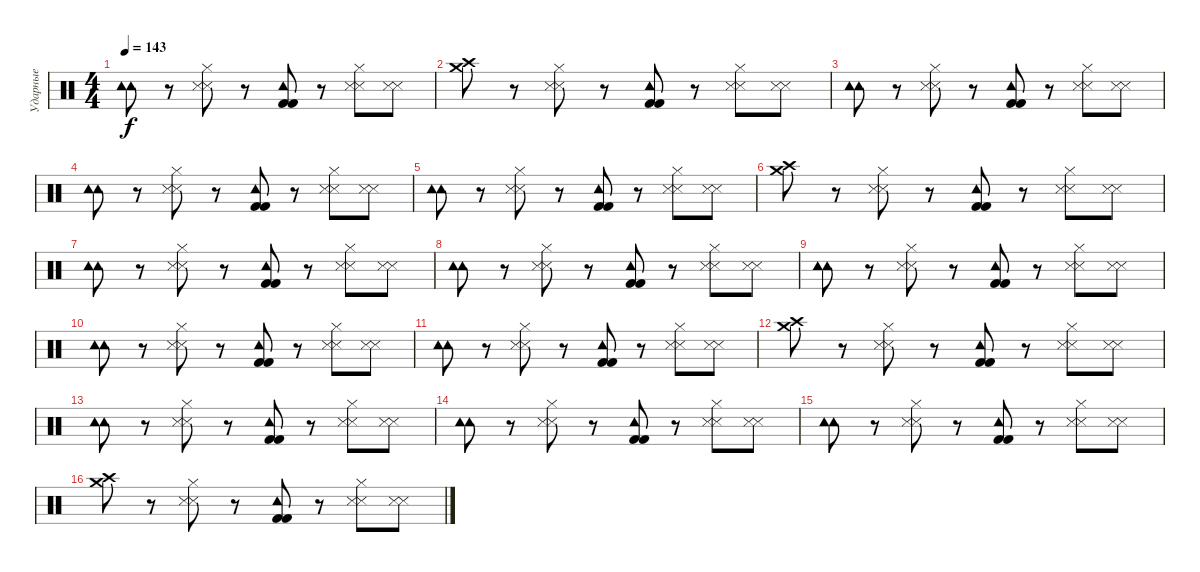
\track ("Ударные" "Ударные") {instrument percussion}
\staff {score}
\articulation defaults
\ts (4 4)
\tempo 143
\clef neutral
\ks c
("Tambourine (hit)" "Tambourine (hit)").8{dy f} r.8 ("Hi-Hat (closed)" "Metronome (hit)" "Metronome (hit)").8 r.8 ("Tambourine (hit)" "Kick (hit) 2" "Kick (hit) 2").8 r.8 ("Hi-Hat (closed)" "Metronome (hit)" "Metronome (hit)").8 ("Metronome (hit)" "Metronome (hit)").8 |
("Crash medium (hit)" "Crash high (hit)").8 r.8 ("Hi-Hat (closed)" "Metronome (hit)" "Metronome (hit)").8 r.8 ("Tambourine (hit)" "Kick (hit) 2" "Kick (hit) 2").8 r.8 ("Hi-Hat (closed)" "Metronome (hit)" "Metronome (hit)").8 ("Metronome (hit)" "Metronome (hit)").8 |
("Tambourine (hit)" "Tambourine (hit)").8 r.8 ("Hi-Hat (closed)" "Metronome (hit)" "Metronome (hit)").8 r.8 ("Tambourine (hit)" "Kick (hit) 2" "Kick (hit) 2").8 r.8 ("Hi-Hat (closed)" "Metronome (hit)" "Metronome (hit)").8 ("Metronome (hit)" "Metronome (hit)").8 |
("Tambourine (hit)" "Tambourine (hit)").8 r.8 ("Hi-Hat (closed)" "Metronome (hit)" "Metronome (hit)").8 r.8 ("Tambourine (hit)" "Kick (hit) 2" "Kick (hit) 2").8 r.8 ("Hi-Hat (closed)" "Metronome (hit)" "Metronome (hit)").8 ("Metronome (hit)" "Metronome (hit)").8 |
("Tambourine (hit)" "Tambourine (hit)").8 r.8 ("Hi-Hat (closed)" "Metronome (hit)" "Metronome (hit)").8 r.8 ("Tambourine (hit)" "Kick (hit) 2" "Kick (hit) 2").8 r.8 ("Hi-Hat (closed)" "Metronome (hit)" "Metronome (hit)").8 ("Metronome (hit)" "Metronome (hit)").8 |
("Crash medium (hit)" "Crash high (hit)").8 r.8 ("Hi-Hat (closed)" "Metronome (hit)" "Metronome (hit)").8 r.8 ("Tambourine (hit)" "Kick (hit) 2" "Kick (hit) 2").8 r.8 ("Hi-Hat (closed)" "Metronome (hit)" "Metronome (hit)").8 ("Metronome (hit)" "Metronome (hit)").8 |
("Tambourine (hit)" "Tambourine (hit)").8 r.8 ("Hi-Hat (closed)" "Metronome (hit)" "Metronome (hit)").8 r.8 ("Tambourine (hit)" "Kick (hit) 2" "Kick (hit) 2").8 r.8 ("Hi-Hat (closed)" "Metronome (hit)" "Metronome (hit)").8 ("Metronome (hit)" "Metronome (hit)").8 |
("Tambourine (hit)" "Tambourine (hit)").8 r.8 ("Hi-Hat (closed)" "Metronome (hit)" "Metronome (hit)").8 r.8 ("Tambourine (hit)" "Kick (hit) 2" "Kick (hit) 2").8 r.8 ("Hi-Hat (closed)" "Metronome (hit)" "Metronome (hit)").8 ("Metronome (hit)" "Metronome (hit)").8 |
("Tambourine (hit)" "Tambourine (hit)").8 r.8 ("Hi-Hat (closed)" "Metronome (hit)" "Metronome (hit)").8 r.8 ("Tambourine (hit)" "Kick (hit) 2" "Kick (hit) 2").8 r.8 ("Hi-Hat (closed)" "Metronome (hit)" "Metronome (hit)").8 ("Metronome (hit)" "Metronome (hit)").8 |
("Tambourine (hit)" "Tambourine (hit)").8 r.8 ("Hi-Hat (closed)" "Metronome (hit)" "Metronome (hit)").8 r.8 ("Tambourine (hit)" "Kick (hit) 2" "Kick (hit) 2").8 r.8 ("Hi-Hat (closed)" "Metronome (hit)" "Metronome (hit)").8 ("Metronome (hit)" "Metronome (hit)").8 |
("Tambourine (hit)" "Tambourine (hit)").8 r.8 ("Hi-Hat (closed)" "Metronome (hit)" "Metronome (hit)").8 r.8 ("Tambourine (hit)" "Kick (hit) 2" "Kick (hit) 2").8 r.8 ("Hi-Hat (closed)" "Metronome (hit)" "Metronome (hit)").8 ("Metronome (hit)" "Metronome (hit)").8 |
("Crash medium (hit)" "Crash high (hit)").8 r.8 ("Hi-Hat (closed)" "Metronome (hit)" "Metronome (hit)").8 r.8 ("Tambourine (hit)" "Kick (hit) 2" "Kick (hit) 2").8 r.8 ("Hi-Hat (closed)" "Metronome (hit)" "Metronome (hit)").8 ("Metronome (hit)" "Metronome (hit)").8 |
("Tambourine (hit)" "Tambourine (hit)").8 r.8 ("Hi-Hat (closed)" "Metronome (hit)" "Metronome (hit)").8 r.8 ("Tambourine (hit)" "Kick (hit) 2" "Kick (hit) 2").8 r.8 ("Hi-Hat (closed)" "Metronome (hit)" "Metronome (hit)").8 ("Metronome (hit)" "Metronome (hit)").8 |
("Tambourine (hit)" "Tambourine (hit)").8 r.8 ("Hi-Hat (closed)" "Metronome (hit)" "Metronome (hit)").8 r.8 ("Tambourine (hit)" "Kick (hit) 2" "Kick (hit) 2").8 r.8 ("Hi-Hat (closed)" "Metronome (hit)" "Metronome (hit)").8 ("Metronome (hit)" "Metronome (hit)").8 |
("Tambourine (hit)" "Tambourine (hit)").8 r.8 ("Hi-Hat (closed)" "Metronome (hit)" "Metronome (hit)").8 r.8 ("Tambourine (hit)" "Kick (hit) 2" "Kick (hit) 2").8 r.8 ("Hi-Hat (closed)" "Metronome (hit)" "Metronome (hit)").8 ("Metronome (hit)" "Metronome (hit)").8 |
("Crash medium (hit)" "Crash high (hit)").8 r.8 ("Hi-Hat (closed)" "Metronome (hit)" "Metronome (hit)").8 r.8 ("Tambourine (hit)" "Kick (hit) 2" "Kick (hit) 2").8 r.8 ("Hi-Hat (closed)" "Metronome (hit)" "Metronome (hit)").8 ("Metronome (hit)" "Metronome (hit)").8
